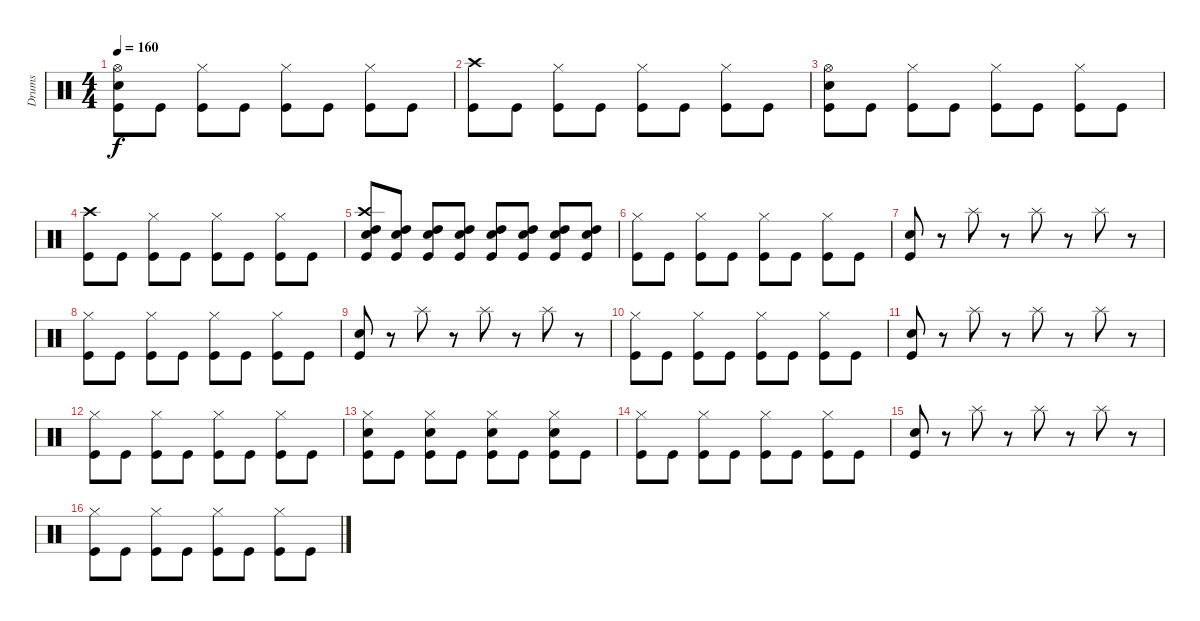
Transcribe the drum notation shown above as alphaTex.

\track ("Drums" "Drums") {instrument percussion}
\staff {score}
\articulation defaults
\ts (4 4)
\tempo 160
\clef neutral
\ks c
("Hi-Hat (open)" "Electric Snare (hit)" "Kick (hit)").8{dy f} "Kick (hit)".8 ("Hi-Hat (closed)" "Kick (hit)").8 "Kick (hit)".8 ("Hi-Hat (closed)" "Kick (hit)").8 "Kick (hit)".8 ("Hi-Hat (closed)" "Kick (hit)").8 "Kick (hit)".8 |
("Crash high (hit)" "Kick (hit)").8 "Kick (hit)".8 ("Hi-Hat (closed)" "Kick (hit)").8 "Kick (hit)".8 ("Hi-Hat (closed)" "Kick (hit)").8 "Kick (hit)".8 ("Hi-Hat (closed)" "Kick (hit)").8 "Kick (hit)".8 |
("Hi-Hat (open)" "Electric Snare (hit)" "Kick (hit)").8 "Kick (hit)".8 ("Hi-Hat (closed)" "Kick (hit)").8 "Kick (hit)".8 ("Hi-Hat (closed)" "Kick (hit)").8 "Kick (hit)".8 ("Hi-Hat (closed)" "Kick (hit)").8 "Kick (hit)".8 |
("Crash high (hit)" "Kick (hit)").8 "Kick (hit)".8 ("Hi-Hat (closed)" "Kick (hit)").8 "Kick (hit)".8 ("Hi-Hat (closed)" "Kick (hit)").8 "Kick (hit)".8 ("Hi-Hat (closed)" "Kick (hit)").8 "Kick (hit)".8 |
("Crash high (hit)" "Snare (hit) 2" "High Tom (hit)" "Kick (hit)").8 ("Snare (hit) 2" "High Tom (hit)" "Kick (hit)").8 ("Snare (hit) 2" "High Tom (hit)" "Kick (hit)").8 ("Snare (hit) 2" "High Tom (hit)" "Kick (hit)").8 ("Snare (hit) 2" "High Tom (hit)" "Kick (hit)").8 ("Snare (hit) 2" "High Tom (hit)" "Kick (hit)").8 ("Snare (hit) 2" "High Tom (hit)" "Kick (hit)").8 ("Snare (hit) 2" "High Tom (hit)" "Kick (hit)").8 |
("Hi-Hat (closed)" "Kick (hit)").8 "Kick (hit)".8 ("Hi-Hat (closed)" "Kick (hit)").8 "Kick (hit)".8 ("Hi-Hat (closed)" "Kick (hit)").8 "Kick (hit)".8 ("Hi-Hat (closed)" "Kick (hit)").8 "Kick (hit)".8 |
("Electric Snare (hit)" "Kick (hit)").8 r.8 "Splash (hit)".8 r.8 "Splash (hit)".8 r.8 "Splash (hit)".8 r.8 |
("Hi-Hat (closed)" "Kick (hit)").8 "Kick (hit)".8 ("Hi-Hat (closed)" "Kick (hit)").8 "Kick (hit)".8 ("Hi-Hat (closed)" "Kick (hit)").8 "Kick (hit)".8 ("Hi-Hat (closed)" "Kick (hit)").8 "Kick (hit)".8 |
("Electric Snare (hit)" "Kick (hit)").8 r.8 "Splash (hit)".8 r.8 "Splash (hit)".8 r.8 "Splash (hit)".8 r.8 |
("Hi-Hat (closed)" "Kick (hit)").8 "Kick (hit)".8 ("Hi-Hat (closed)" "Kick (hit)").8 "Kick (hit)".8 ("Hi-Hat (closed)" "Kick (hit)").8 "Kick (hit)".8 ("Hi-Hat (closed)" "Kick (hit)").8 "Kick (hit)".8 |
("Electric Snare (hit)" "Kick (hit)").8 r.8 "Splash (hit)".8 r.8 "Splash (hit)".8 r.8 "Splash (hit)".8 r.8 |
("Hi-Hat (closed)" "Kick (hit)").8 "Kick (hit)".8 ("Hi-Hat (closed)" "Kick (hit)").8 "Kick (hit)".8 ("Hi-Hat (closed)" "Kick (hit)").8 "Kick (hit)".8 ("Hi-Hat (closed)" "Kick (hit)").8 "Kick (hit)".8 |
("Hi-Hat (closed)" "Electric Snare (hit)" "Kick (hit)").8 "Kick (hit)".8 ("Hi-Hat (closed)" "Electric Snare (hit)" "Kick (hit)").8 "Kick (hit)".8 ("Hi-Hat (closed)" "Electric Snare (hit)" "Kick (hit)").8 "Kick (hit)".8 ("Hi-Hat (closed)" "Electric Snare (hit)" "Kick (hit)").8 "Kick (hit)".8 |
("Hi-Hat (closed)" "Kick (hit)").8 "Kick (hit)".8 ("Hi-Hat (closed)" "Kick (hit)").8 "Kick (hit)".8 ("Hi-Hat (closed)" "Kick (hit)").8 "Kick (hit)".8 ("Hi-Hat (closed)" "Kick (hit)").8 "Kick (hit)".8 |
("Electric Snare (hit)" "Kick (hit)").8 r.8 "Splash (hit)".8 r.8 "Splash (hit)".8 r.8 "Splash (hit)".8 r.8 |
("Hi-Hat (closed)" "Kick (hit)").8 "Kick (hit)".8 ("Hi-Hat (closed)" "Kick (hit)").8 "Kick (hit)".8 ("Hi-Hat (closed)" "Kick (hit)").8 "Kick (hit)".8 ("Hi-Hat (closed)" "Kick (hit)").8 "Kick (hit)".8
